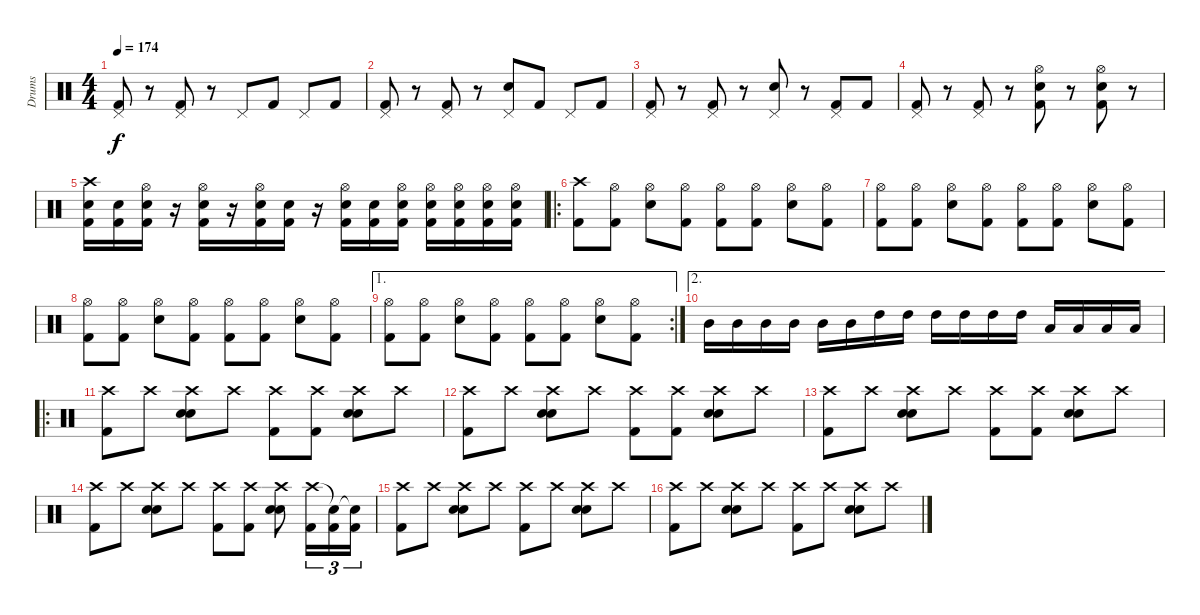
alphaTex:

\track ("Drums" "Drums") {instrument percussion}
\staff {score}
\articulation defaults
\ts (4 4)
\tempo 174
\clef neutral
\ks c
("Pedal Hi-Hat (hit)" "Kick (hit) 2").8{dy f} r.8 ("Pedal Hi-Hat (hit)" "Kick (hit) 2").8 r.8 "Pedal Hi-Hat (hit)".8 "Kick (hit) 2".8 "Pedal Hi-Hat (hit)".8 "Kick (hit) 2".8 |
("Pedal Hi-Hat (hit)" "Kick (hit) 2").8 r.8 ("Pedal Hi-Hat (hit)" "Kick (hit) 2").8 r.8 ("Pedal Hi-Hat (hit)" "Electric Snare (hit)").8 "Kick (hit) 2".8 "Pedal Hi-Hat (hit)".8 "Kick (hit) 2".8 |
("Pedal Hi-Hat (hit)" "Kick (hit) 2").8 r.8 ("Pedal Hi-Hat (hit)" "Kick (hit) 2").8 r.8 ("Pedal Hi-Hat (hit)" "Electric Snare (hit)").8 r.8 ("Pedal Hi-Hat (hit)" "Kick (hit) 2").8 "Kick (hit) 2".8 |
("Pedal Hi-Hat (hit)" "Kick (hit) 2").8 r.8 ("Pedal Hi-Hat (hit)" "Kick (hit) 2").8 r.8 ("Hi-Hat (open)" "Kick (hit) 2" "Electric Snare (hit)").8 r.8 ("Hi-Hat (open)" "Kick (hit) 2" "Electric Snare (hit)").8 r.8 |
("Crash high (hit)" "Kick (hit) 2" "Electric Snare (hit)").16 ("Kick (hit) 2" "Electric Snare (hit)").16 ("Hi-Hat (open)" "Kick (hit) 2" "Electric Snare (hit)").16 r.16 ("Hi-Hat (open)" "Kick (hit) 2" "Electric Snare (hit)").16 r.16 ("Hi-Hat (open)" "Kick (hit) 2" "Electric Snare (hit)").16 ("Kick (hit) 2" "Electric Snare (hit)").16 r.16 ("Hi-Hat (open)" "Kick (hit) 2" "Electric Snare (hit)").16 ("Kick (hit) 2" "Electric Snare (hit)").16 ("Hi-Hat (open)" "Kick (hit) 2" "Electric Snare (hit)").16 ("Hi-Hat (open)" "Kick (hit) 2" "Electric Snare (hit)").16 ("Hi-Hat (open)" "Kick (hit) 2" "Electric Snare (hit)").16 ("Hi-Hat (open)" "Kick (hit) 2" "Electric Snare (hit)").16 ("Hi-Hat (open)" "Kick (hit) 2" "Electric Snare (hit)").16 |
\ro
("Crash high (hit)" "Kick (hit) 2").8 ("Hi-Hat (open)" "Kick (hit) 2").8 ("Hi-Hat (open)" "Electric Snare (hit)").8 ("Hi-Hat (open)" "Kick (hit) 2").8 ("Hi-Hat (open)" "Kick (hit) 2").8 ("Hi-Hat (open)" "Kick (hit) 2").8 ("Hi-Hat (open)" "Electric Snare (hit)").8 ("Hi-Hat (open)" "Kick (hit) 2").8 |
("Hi-Hat (open)" "Kick (hit) 2").8 ("Hi-Hat (open)" "Kick (hit) 2").8 ("Hi-Hat (open)" "Electric Snare (hit)").8 ("Hi-Hat (open)" "Kick (hit) 2").8 ("Hi-Hat (open)" "Kick (hit) 2").8 ("Hi-Hat (open)" "Kick (hit) 2").8 ("Hi-Hat (open)" "Electric Snare (hit)").8 ("Hi-Hat (open)" "Kick (hit) 2").8 |
("Hi-Hat (open)" "Kick (hit) 2").8 ("Hi-Hat (open)" "Kick (hit) 2").8 ("Hi-Hat (open)" "Electric Snare (hit)").8 ("Hi-Hat (open)" "Kick (hit) 2").8 ("Hi-Hat (open)" "Kick (hit) 2").8 ("Hi-Hat (open)" "Kick (hit) 2").8 ("Hi-Hat (open)" "Electric Snare (hit)").8 ("Hi-Hat (open)" "Kick (hit) 2").8 |
\ae 1
\rc 2
("Hi-Hat (open)" "Kick (hit) 2").8 ("Hi-Hat (open)" "Kick (hit) 2").8 ("Hi-Hat (open)" "Electric Snare (hit)").8 ("Hi-Hat (open)" "Kick (hit) 2").8 ("Hi-Hat (open)" "Kick (hit) 2").8 ("Hi-Hat (open)" "Kick (hit) 2").8 ("Hi-Hat (open)" "Electric Snare (hit)").8 ("Hi-Hat (open)" "Kick (hit) 2").8 |
\ae 2 "Mid Tom (hit)".16 "Mid Tom (hit)".16 "Mid Tom (hit)".16 "Mid Tom (hit)".16 "Mid Tom (hit)".16 "Mid Tom (hit)".16 "High Tom (hit)".16 "High Tom (hit)".16 "High Tom (hit)".16 "High Tom (hit)".16 "High Tom (hit)".16 "High Tom (hit)".16 "Low Tom (hit)".16 "Low Tom (hit)".16 "Low Tom (hit)".16 "Low Tom (hit)".16
|
\ro
("Crash high (hit)" "Kick (hit) 2").8 "Crash high (hit)".8 ("Crash high (hit)" "Electric Snare (hit)" "Electric Snare (hit)").8 "Crash high (hit)".8 ("Crash high (hit)" "Kick (hit) 2").8 ("Crash high (hit)" "Kick (hit) 2").8 ("Crash high (hit)" "Electric Snare (hit)" "Electric Snare (hit)").8 "Crash high (hit)".8 |
("Crash high (hit)" "Kick (hit) 2").8 "Crash high (hit)".8 ("Crash high (hit)" "Electric Snare (hit)" "Electric Snare (hit)").8 "Crash high (hit)".8 ("Crash high (hit)" "Kick (hit) 2").8 ("Crash high (hit)" "Kick (hit) 2").8 ("Crash high (hit)" "Electric Snare (hit)" "Electric Snare (hit)").8 "Crash high (hit)".8 |
("Crash high (hit)" "Kick (hit) 2").8 "Crash high (hit)".8 ("Crash high (hit)" "Electric Snare (hit)" "Electric Snare (hit)").8 "Crash high (hit)".8 ("Crash high (hit)" "Kick (hit) 2").8 ("Crash high (hit)" "Kick (hit) 2").8 ("Crash high (hit)" "Electric Snare (hit)" "Electric Snare (hit)").8 "Crash high (hit)".8 |
("Crash high (hit)" "Kick (hit) 2").8 "Crash high (hit)".8 ("Crash high (hit)" "Electric Snare (hit)" "Electric Snare (hit)").8 "Crash high (hit)".8 ("Crash high (hit)" "Kick (hit) 2").8 ("Crash high (hit)" "Kick (hit) 2").8 ("Crash high (hit)" "Electric Snare (hit)" "Electric Snare (hit)").8 ("Crash high (hit)" "Kick (hit) 2").16{tu (3 2)} ("Snare (hit)"{t} "Kick (hit) 2").16{tu (3 2)} ("Snare (hit)"{t} "Kick (hit) 2").16{tu (3 2)} |
("Crash high (hit)" "Kick (hit) 2").8 "Crash high (hit)".8 ("Crash high (hit)" "Electric Snare (hit)" "Electric Snare (hit)").8 "Crash high (hit)".8 ("Crash high (hit)" "Kick (hit) 2").8 "Crash high (hit)".8 ("Crash high (hit)" "Electric Snare (hit)" "Electric Snare (hit)").8 "Crash high (hit)".8 |
("Crash high (hit)" "Kick (hit) 2").8 "Crash high (hit)".8 ("Crash high (hit)" "Electric Snare (hit)" "Electric Snare (hit)").8 "Crash high (hit)".8 ("Crash high (hit)" "Kick (hit) 2").8 "Crash high (hit)".8 ("Crash high (hit)" "Electric Snare (hit)" "Electric Snare (hit)").8 "Crash high (hit)".8
